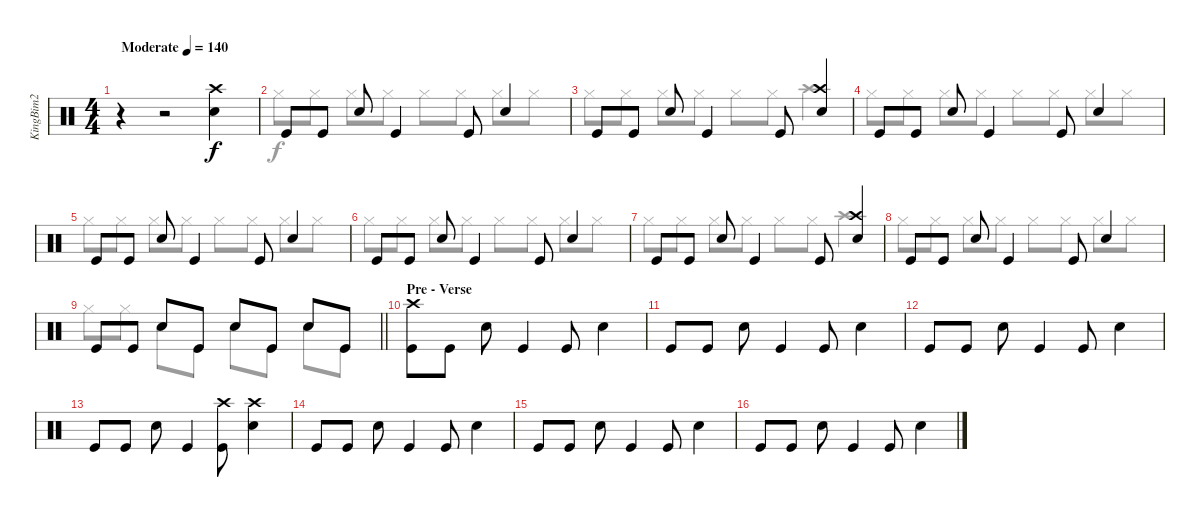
\track ("KingBim2" "KingBim2") {instrument percussion}
\staff {score}
\articulation defaults
\voice
\ts (4 4)
\tempo (140 "Moderate")
\clef neutral
\ks c
r.4{dy f} r.2 ("Crash high (hit)" "Snare (hit) 2").4 |
"Kick (hit)".8 "Kick (hit)".8 "Snare (hit) 2".8 "Kick (hit)".4 "Kick (hit)".8 "Snare (hit) 2".4 |
"Kick (hit)".8 "Kick (hit)".8 "Snare (hit) 2".8 "Kick (hit)".4 "Kick (hit)".8 ("Crash high (hit)" "Snare (hit) 2").4 |
"Kick (hit)".8 "Kick (hit)".8 "Snare (hit) 2".8 "Kick (hit)".4 "Kick (hit)".8 "Snare (hit) 2".4 |
"Kick (hit)".8 "Kick (hit)".8 "Snare (hit) 2".8 "Kick (hit)".4 "Kick (hit)".8 "Snare (hit) 2".4 |
"Kick (hit)".8 "Kick (hit)".8 "Snare (hit) 2".8 "Kick (hit)".4 "Kick (hit)".8 "Snare (hit) 2".4 |
"Kick (hit)".8 "Kick (hit)".8 "Snare (hit) 2".8 "Kick (hit)".4 "Kick (hit)".8 ("Crash high (hit)" "Snare (hit) 2").4 |
"Kick (hit)".8 "Kick (hit)".8 "Snare (hit) 2".8 "Kick (hit)".4 "Kick (hit)".8 "Snare (hit) 2".4 |
\barLineRight lightlight "Kick (hit)".8 "Kick (hit)".8 "Snare (hit) 2".8 "Kick (hit)".8 "Snare (hit) 2".8 "Kick (hit)".8 "Snare (hit) 2".8 "Kick (hit)".8
|
\section ("" "Pre - Verse")
("Crash high (hit)" "Kick (hit)").8 "Kick (hit)".8 "Snare (hit) 2".8 "Kick (hit)".4 "Kick (hit)".8 "Snare (hit) 2".4 |
"Kick (hit)".8 "Kick (hit)".8 "Snare (hit) 2".8 "Kick (hit)".4 "Kick (hit)".8 "Snare (hit) 2".4 |
"Kick (hit)".8 "Kick (hit)".8 "Snare (hit) 2".8 "Kick (hit)".4 "Kick (hit)".8 "Snare (hit) 2".4 |
"Kick (hit)".8 "Kick (hit)".8 "Snare (hit) 2".8 "Kick (hit)".4 ("Crash high (hit)" "Kick (hit)").8 ("Crash high (hit)" "Snare (hit) 2").4 |
"Kick (hit)".8 "Kick (hit)".8 "Snare (hit) 2".8 "Kick (hit)".4 "Kick (hit)".8 "Snare (hit) 2".4 |
"Kick (hit)".8 "Kick (hit)".8 "Snare (hit) 2".8 "Kick (hit)".4 "Kick (hit)".8 "Snare (hit) 2".4 |
"Kick (hit)".8 "Kick (hit)".8 "Snare (hit) 2".8 "Kick (hit)".4 "Kick (hit)".8 "Snare (hit) 2".4
\voice
\clef neutral
\ottava regular
\simile none
\ks c
|
"Hi-Hat (closed)".8 "Hi-Hat (closed)".8 "Hi-Hat (closed)".8 "Hi-Hat (closed)".8 "Hi-Hat (closed)".8 "Hi-Hat (closed)".8 "Hi-Hat (closed)".8 "Hi-Hat (closed)".8 |
"Hi-Hat (closed)".8 "Hi-Hat (closed)".8 "Hi-Hat (closed)".8 "Hi-Hat (closed)".8 "Hi-Hat (closed)".8 "Hi-Hat (closed)".8 "Crash high (hit)".4 |
"Hi-Hat (closed)".8 "Hi-Hat (closed)".8 "Hi-Hat (closed)".8 "Hi-Hat (closed)".8 "Hi-Hat (closed)".8 "Hi-Hat (closed)".8 "Hi-Hat (closed)".8 "Hi-Hat (closed)".8 |
"Hi-Hat (closed)".8 "Hi-Hat (closed)".8 "Hi-Hat (closed)".8 "Hi-Hat (closed)".8 "Hi-Hat (closed)".8 "Hi-Hat (closed)".8 "Hi-Hat (closed)".8 "Hi-Hat (closed)".8 |
"Hi-Hat (closed)".8 "Hi-Hat (closed)".8 "Hi-Hat (closed)".8 "Hi-Hat (closed)".8 "Hi-Hat (closed)".8 "Hi-Hat (closed)".8 "Hi-Hat (closed)".8 "Hi-Hat (closed)".8 |
"Hi-Hat (closed)".8 "Hi-Hat (closed)".8 "Hi-Hat (closed)".8 "Hi-Hat (closed)".8 "Hi-Hat (closed)".8 "Hi-Hat (closed)".8 "Crash high (hit)".4 |
"Hi-Hat (closed)".8 "Hi-Hat (closed)".8 "Hi-Hat (closed)".8 "Hi-Hat (closed)".8 "Hi-Hat (closed)".8 "Hi-Hat (closed)".8 "Hi-Hat (closed)".8 "Hi-Hat (closed)".8 |
\barLineRight lightlight "Hi-Hat (closed)".8 "Hi-Hat (closed)".8 "Snare (hit) 2".8 "Kick (hit)".8 "Snare (hit) 2".8 "Kick (hit)".8 "Snare (hit) 2".8 "Kick (hit)".8
|
|
|
|
|
|
|
